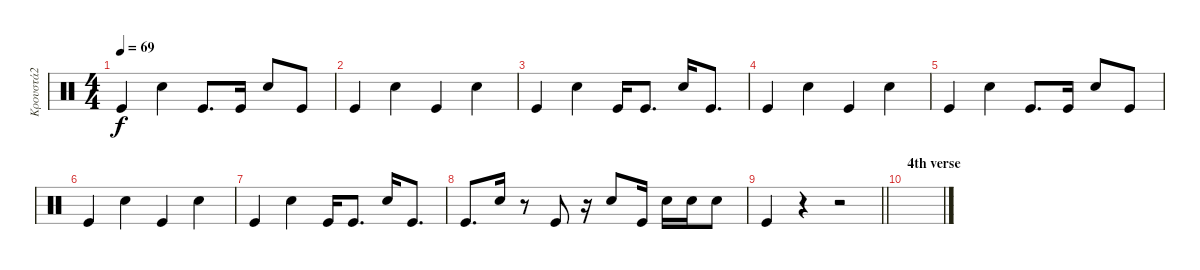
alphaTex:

\track ("Κρουστά2" "Κρουστά2") {instrument percussion}
\staff {score}
\articulation defaults
\ts (4 4)
\tempo 69
\clef neutral
\ks c "Kick (hit)".4{dy f} "Snare (hit) 2".4 "Kick (hit)".8{d} "Kick (hit)".16 "Snare (hit) 2".8 "Kick (hit)".8
|
"Kick (hit)".4 "Snare (hit) 2".4 "Kick (hit)".4 "Snare (hit) 2".4 |
"Kick (hit)".4 "Snare (hit) 2".4 "Kick (hit)".16 "Kick (hit)".8{d} "Snare (hit) 2".16 "Kick (hit)".8{d} |
"Kick (hit)".4 "Snare (hit) 2".4 "Kick (hit)".4 "Snare (hit) 2".4 |
"Kick (hit)".4 "Snare (hit) 2".4 "Kick (hit)".8{d} "Kick (hit)".16 "Snare (hit) 2".8 "Kick (hit)".8 |
"Kick (hit)".4 "Snare (hit) 2".4 "Kick (hit)".4 "Snare (hit) 2".4 |
"Kick (hit)".4 "Snare (hit) 2".4 "Kick (hit)".16 "Kick (hit)".8{d} "Snare (hit) 2".16 "Kick (hit)".8{d} |
"Kick (hit)".8{d} "Snare (hit) 2".16 r.8 "Kick (hit)".8 r.16 "Snare (hit) 2".8 "Kick (hit)".16 "Snare (hit) 2".16 "Snare (hit) 2".16 "Snare (hit) 2".8 |
\barLineRight lightlight "Kick (hit)".4
r.4 r.2 |
\section ("" "4th verse")
